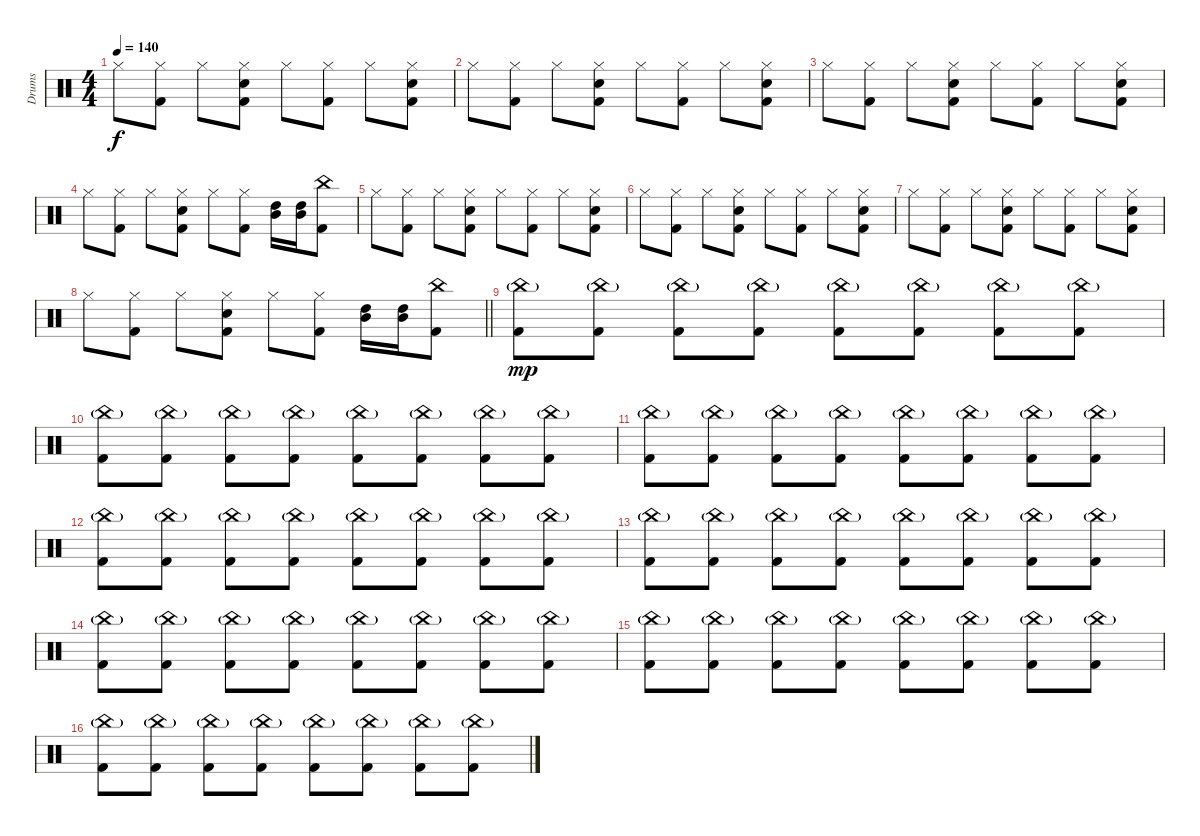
\track ("Drums" "Drums") {instrument percussion}
\staff {score}
\articulation defaults
\ts (4 4)
\tempo 140
\clef neutral
\ks c "Hi-Hat (closed)".8{dy f}
("Hi-Hat (closed)" "Kick (hit) 2").8 "Hi-Hat (closed)".8 ("Hi-Hat (closed)" "Snare (hit) 2" "Kick (hit) 2").8 "Hi-Hat (closed)".8 ("Hi-Hat (closed)" "Kick (hit) 2").8 "Hi-Hat (closed)".8 ("Hi-Hat (closed)" "Snare (hit) 2" "Kick (hit) 2").8 |
"Hi-Hat (closed)".8 ("Hi-Hat (closed)" "Kick (hit) 2").8 "Hi-Hat (closed)".8 ("Hi-Hat (closed)" "Snare (hit) 2" "Kick (hit) 2").8 "Hi-Hat (closed)".8 ("Hi-Hat (closed)" "Kick (hit) 2").8 "Hi-Hat (closed)".8 ("Hi-Hat (closed)" "Snare (hit) 2" "Kick (hit) 2").8 |
"Hi-Hat (closed)".8 ("Hi-Hat (closed)" "Kick (hit) 2").8 "Hi-Hat (closed)".8 ("Hi-Hat (closed)" "Snare (hit) 2" "Kick (hit) 2").8 "Hi-Hat (closed)".8 ("Hi-Hat (closed)" "Kick (hit) 2").8 "Hi-Hat (closed)".8 ("Hi-Hat (closed)" "Snare (hit) 2" "Kick (hit) 2").8 |
"Hi-Hat (closed)".8 ("Hi-Hat (closed)" "Kick (hit) 2").8 "Hi-Hat (closed)".8 ("Hi-Hat (closed)" "Snare (hit) 2" "Kick (hit) 2").8 "Hi-Hat (closed)".8 ("Hi-Hat (closed)" "Kick (hit) 2").8 ("Mid Tom (hit)" "High Tom (hit)").16 ("Mid Tom (hit)" "High Tom (hit)").16 ("China (hit)" "Kick (hit) 2").8 |
"Hi-Hat (closed)".8 ("Hi-Hat (closed)" "Kick (hit) 2").8 "Hi-Hat (closed)".8 ("Hi-Hat (closed)" "Snare (hit) 2" "Kick (hit) 2").8 "Hi-Hat (closed)".8 ("Hi-Hat (closed)" "Kick (hit) 2").8 "Hi-Hat (closed)".8 ("Hi-Hat (closed)" "Snare (hit) 2" "Kick (hit) 2").8 |
"Hi-Hat (closed)".8 ("Hi-Hat (closed)" "Kick (hit) 2").8 "Hi-Hat (closed)".8 ("Hi-Hat (closed)" "Snare (hit) 2" "Kick (hit) 2").8 "Hi-Hat (closed)".8 ("Hi-Hat (closed)" "Kick (hit) 2").8 "Hi-Hat (closed)".8 ("Hi-Hat (closed)" "Snare (hit) 2" "Kick (hit) 2").8 |
"Hi-Hat (closed)".8 ("Hi-Hat (closed)" "Kick (hit) 2").8 "Hi-Hat (closed)".8 ("Hi-Hat (closed)" "Snare (hit) 2" "Kick (hit) 2").8 "Hi-Hat (closed)".8 ("Hi-Hat (closed)" "Kick (hit) 2").8 "Hi-Hat (closed)".8 ("Hi-Hat (closed)" "Snare (hit) 2" "Kick (hit) 2").8 |
\barLineRight lightlight "Hi-Hat (closed)".8
("Hi-Hat (closed)" "Kick (hit) 2").8 "Hi-Hat (closed)".8 ("Hi-Hat (closed)" "Snare (hit) 2" "Kick (hit) 2").8 "Hi-Hat (closed)".8 ("Hi-Hat (closed)" "Kick (hit) 2").8 ("Mid Tom (hit)" "High Tom (hit)").16 ("Mid Tom (hit)" "High Tom (hit)").16 ("China (hit)" "Kick (hit) 2").8 |
("China (hit)"{g} "Kick (hit) 2").8{dy mp} ("China (hit)"{g} "Kick (hit) 2").8 ("China (hit)"{g} "Kick (hit) 2").8 ("China (hit)"{g} "Kick (hit) 2").8 ("China (hit)"{g} "Kick (hit) 2").8 ("China (hit)"{g} "Kick (hit) 2").8 ("China (hit)"{g} "Kick (hit) 2").8 ("China (hit)"{g} "Kick (hit) 2").8 |
("China (hit)"{g} "Kick (hit) 2").8 ("China (hit)"{g} "Kick (hit) 2").8 ("China (hit)"{g} "Kick (hit) 2").8 ("China (hit)"{g} "Kick (hit) 2").8 ("China (hit)"{g} "Kick (hit) 2").8 ("China (hit)"{g} "Kick (hit) 2").8 ("China (hit)"{g} "Kick (hit) 2").8 ("China (hit)"{g} "Kick (hit) 2").8 |
("China (hit)"{g} "Kick (hit) 2").8 ("China (hit)"{g} "Kick (hit) 2").8 ("China (hit)"{g} "Kick (hit) 2").8 ("China (hit)"{g} "Kick (hit) 2").8 ("China (hit)"{g} "Kick (hit) 2").8 ("China (hit)"{g} "Kick (hit) 2").8 ("China (hit)"{g} "Kick (hit) 2").8 ("China (hit)"{g} "Kick (hit) 2").8 |
("China (hit)"{g} "Kick (hit) 2").8 ("China (hit)"{g} "Kick (hit) 2").8 ("China (hit)"{g} "Kick (hit) 2").8 ("China (hit)"{g} "Kick (hit) 2").8 ("China (hit)"{g} "Kick (hit) 2").8 ("China (hit)"{g} "Kick (hit) 2").8 ("China (hit)"{g} "Kick (hit) 2").8 ("China (hit)"{g} "Kick (hit) 2").8 |
("China (hit)"{g} "Kick (hit) 2").8 ("China (hit)"{g} "Kick (hit) 2").8 ("China (hit)"{g} "Kick (hit) 2").8 ("China (hit)"{g} "Kick (hit) 2").8 ("China (hit)"{g} "Kick (hit) 2").8 ("China (hit)"{g} "Kick (hit) 2").8 ("China (hit)"{g} "Kick (hit) 2").8 ("China (hit)"{g} "Kick (hit) 2").8 |
("China (hit)"{g} "Kick (hit) 2").8 ("China (hit)"{g} "Kick (hit) 2").8 ("China (hit)"{g} "Kick (hit) 2").8 ("China (hit)"{g} "Kick (hit) 2").8 ("China (hit)"{g} "Kick (hit) 2").8 ("China (hit)"{g} "Kick (hit) 2").8 ("China (hit)"{g} "Kick (hit) 2").8 ("China (hit)"{g} "Kick (hit) 2").8 |
("China (hit)"{g} "Kick (hit) 2").8 ("China (hit)"{g} "Kick (hit) 2").8 ("China (hit)"{g} "Kick (hit) 2").8 ("China (hit)"{g} "Kick (hit) 2").8 ("China (hit)"{g} "Kick (hit) 2").8 ("China (hit)"{g} "Kick (hit) 2").8 ("China (hit)"{g} "Kick (hit) 2").8 ("China (hit)"{g} "Kick (hit) 2").8 |
("China (hit)"{g} "Kick (hit) 2").8 ("China (hit)"{g} "Kick (hit) 2").8 ("China (hit)"{g} "Kick (hit) 2").8 ("China (hit)"{g} "Kick (hit) 2").8 ("China (hit)"{g} "Kick (hit) 2").8 ("China (hit)"{g} "Kick (hit) 2").8 ("China (hit)"{g} "Kick (hit) 2").8 ("China (hit)"{g} "Kick (hit) 2").8
